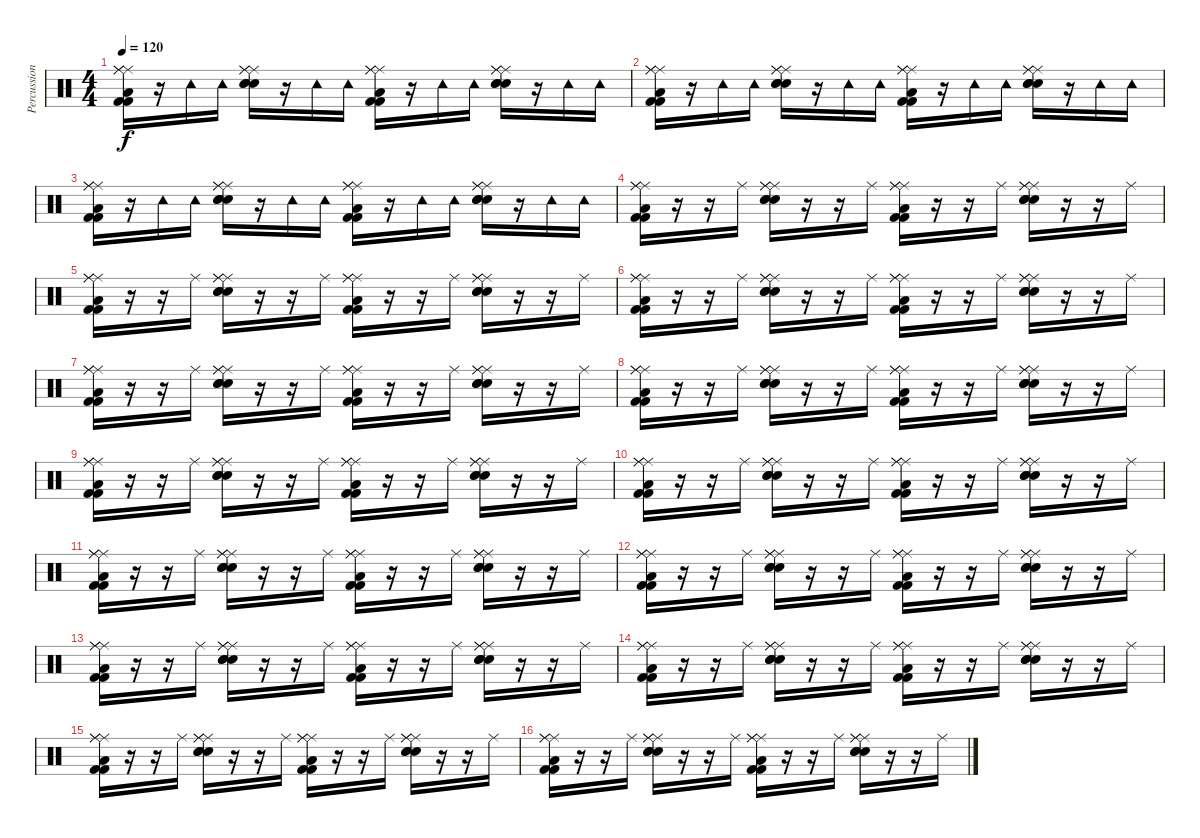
\track ("Percussion" "Percussion") {instrument percussion}
\staff {score}
\articulation defaults
\ts (4 4)
\tempo 120
\clef neutral
\ks c
("Ride (middle)" "Ride (middle)" "Ride (middle)" "Low Floor Tom (hit)" "Kick (hit) 2" "Kick (hit) 2").16{dy f} r.16 "Tambourine (hit)".16 "Tambourine (hit)".16 ("Ride (middle)" "Ride (middle)" "Ride (middle)" "Snare (hit) 2" "Snare (hit) 2" "Snare (hit) 2").16 r.16 "Tambourine (hit)".16 "Tambourine (hit)".16 ("Ride (middle)" "Ride (middle)" "Ride (middle)" "Low Floor Tom (hit)" "Kick (hit) 2" "Kick (hit) 2").16 r.16 "Tambourine (hit)".16 "Tambourine (hit)".16 ("Ride (middle)" "Ride (middle)" "Ride (middle)" "Snare (hit) 2" "Snare (hit) 2" "Snare (hit) 2").16 r.16 "Tambourine (hit)".16 "Tambourine (hit)".16 |
("Ride (middle)" "Ride (middle)" "Ride (middle)" "Low Floor Tom (hit)" "Kick (hit) 2" "Kick (hit) 2").16 r.16 "Tambourine (hit)".16 "Tambourine (hit)".16 ("Ride (middle)" "Ride (middle)" "Ride (middle)" "Snare (hit) 2" "Snare (hit) 2" "Snare (hit) 2").16 r.16 "Tambourine (hit)".16 "Tambourine (hit)".16 ("Ride (middle)" "Ride (middle)" "Ride (middle)" "Low Floor Tom (hit)" "Kick (hit) 2" "Kick (hit) 2").16 r.16 "Tambourine (hit)".16 "Tambourine (hit)".16 ("Ride (middle)" "Ride (middle)" "Ride (middle)" "Snare (hit) 2" "Snare (hit) 2" "Snare (hit) 2").16 r.16 "Tambourine (hit)".16 "Tambourine (hit)".16 |
("Ride (middle)" "Ride (middle)" "Ride (middle)" "Low Floor Tom (hit)" "Kick (hit) 2" "Kick (hit) 2").16 r.16 "Tambourine (hit)".16 "Tambourine (hit)".16 ("Ride (middle)" "Ride (middle)" "Ride (middle)" "Snare (hit) 2" "Snare (hit) 2" "Snare (hit) 2").16 r.16 "Tambourine (hit)".16 "Tambourine (hit)".16 ("Ride (middle)" "Ride (middle)" "Ride (middle)" "Low Floor Tom (hit)" "Kick (hit) 2" "Kick (hit) 2").16 r.16 "Tambourine (hit)".16 "Tambourine (hit)".16 ("Ride (middle)" "Ride (middle)" "Ride (middle)" "Snare (hit) 2" "Snare (hit) 2" "Snare (hit) 2").16 r.16 "Tambourine (hit)".16 "Tambourine (hit)".16 |
("Ride (middle)" "Ride (middle)" "Ride (middle)" "Low Floor Tom (hit)" "Kick (hit) 2" "Kick (hit) 2").16 r.16 r.16 "Ride (middle)".16 ("Ride (middle)" "Ride (middle)" "Ride (middle)" "Snare (hit) 2" "Snare (hit) 2" "Snare (hit) 2").16 r.16 r.16 "Ride (middle)".16 ("Ride (middle)" "Ride (middle)" "Ride (middle)" "Low Floor Tom (hit)" "Kick (hit) 2" "Kick (hit) 2").16 r.16 r.16 "Ride (middle)".16 ("Ride (middle)" "Ride (middle)" "Ride (middle)" "Snare (hit) 2" "Snare (hit) 2" "Snare (hit) 2").16 r.16 r.16 "Ride (middle)".16 |
("Ride (middle)" "Ride (middle)" "Ride (middle)" "Low Floor Tom (hit)" "Kick (hit) 2" "Kick (hit) 2").16 r.16 r.16 "Ride (middle)".16 ("Ride (middle)" "Ride (middle)" "Ride (middle)" "Snare (hit) 2" "Snare (hit) 2" "Snare (hit) 2").16 r.16 r.16 "Ride (middle)".16 ("Ride (middle)" "Ride (middle)" "Ride (middle)" "Low Floor Tom (hit)" "Kick (hit) 2" "Kick (hit) 2").16 r.16 r.16 "Ride (middle)".16 ("Ride (middle)" "Ride (middle)" "Ride (middle)" "Snare (hit) 2" "Snare (hit) 2" "Snare (hit) 2").16 r.16 r.16 "Ride (middle)".16 |
("Ride (middle)" "Ride (middle)" "Ride (middle)" "Low Floor Tom (hit)" "Kick (hit) 2" "Kick (hit) 2").16 r.16 r.16 "Ride (middle)".16 ("Ride (middle)" "Ride (middle)" "Ride (middle)" "Snare (hit) 2" "Snare (hit) 2" "Snare (hit) 2").16 r.16 r.16 "Ride (middle)".16 ("Ride (middle)" "Ride (middle)" "Ride (middle)" "Low Floor Tom (hit)" "Kick (hit) 2" "Kick (hit) 2").16 r.16 r.16 "Ride (middle)".16 ("Ride (middle)" "Ride (middle)" "Ride (middle)" "Snare (hit) 2" "Snare (hit) 2" "Snare (hit) 2").16 r.16 r.16 "Ride (middle)".16 |
("Ride (middle)" "Ride (middle)" "Ride (middle)" "Low Floor Tom (hit)" "Kick (hit) 2" "Kick (hit) 2").16 r.16 r.16 "Ride (middle)".16 ("Ride (middle)" "Ride (middle)" "Ride (middle)" "Snare (hit) 2" "Snare (hit) 2" "Snare (hit) 2").16 r.16 r.16 "Ride (middle)".16 ("Ride (middle)" "Ride (middle)" "Ride (middle)" "Low Floor Tom (hit)" "Kick (hit) 2" "Kick (hit) 2").16 r.16 r.16 "Ride (middle)".16 ("Ride (middle)" "Ride (middle)" "Ride (middle)" "Snare (hit) 2" "Snare (hit) 2" "Snare (hit) 2").16 r.16 r.16 "Ride (middle)".16 |
("Ride (middle)" "Ride (middle)" "Ride (middle)" "Low Floor Tom (hit)" "Kick (hit) 2" "Kick (hit) 2").16 r.16 r.16 "Ride (middle)".16 ("Ride (middle)" "Ride (middle)" "Ride (middle)" "Snare (hit) 2" "Snare (hit) 2" "Snare (hit) 2").16 r.16 r.16 "Ride (middle)".16 ("Ride (middle)" "Ride (middle)" "Ride (middle)" "Low Floor Tom (hit)" "Kick (hit) 2" "Kick (hit) 2").16 r.16 r.16 "Ride (middle)".16 ("Ride (middle)" "Ride (middle)" "Ride (middle)" "Snare (hit) 2" "Snare (hit) 2" "Snare (hit) 2").16 r.16 r.16 "Ride (middle)".16 |
("Ride (middle)" "Ride (middle)" "Ride (middle)" "Low Floor Tom (hit)" "Kick (hit) 2" "Kick (hit) 2").16 r.16 r.16 "Ride (middle)".16 ("Ride (middle)" "Ride (middle)" "Ride (middle)" "Snare (hit) 2" "Snare (hit) 2" "Snare (hit) 2").16 r.16 r.16 "Ride (middle)".16 ("Ride (middle)" "Ride (middle)" "Ride (middle)" "Low Floor Tom (hit)" "Kick (hit) 2" "Kick (hit) 2").16 r.16 r.16 "Ride (middle)".16 ("Ride (middle)" "Ride (middle)" "Ride (middle)" "Snare (hit) 2" "Snare (hit) 2" "Snare (hit) 2").16 r.16 r.16 "Ride (middle)".16 |
("Ride (middle)" "Ride (middle)" "Ride (middle)" "Low Floor Tom (hit)" "Kick (hit) 2" "Kick (hit) 2").16 r.16 r.16 "Ride (middle)".16 ("Ride (middle)" "Ride (middle)" "Ride (middle)" "Snare (hit) 2" "Snare (hit) 2" "Snare (hit) 2").16 r.16 r.16 "Ride (middle)".16 ("Ride (middle)" "Ride (middle)" "Ride (middle)" "Low Floor Tom (hit)" "Kick (hit) 2" "Kick (hit) 2").16 r.16 r.16 "Ride (middle)".16 ("Ride (middle)" "Ride (middle)" "Ride (middle)" "Snare (hit) 2" "Snare (hit) 2" "Snare (hit) 2").16 r.16 r.16 "Ride (middle)".16 |
("Ride (middle)" "Ride (middle)" "Ride (middle)" "Low Floor Tom (hit)" "Kick (hit) 2" "Kick (hit) 2").16 r.16 r.16 "Ride (middle)".16 ("Ride (middle)" "Ride (middle)" "Ride (middle)" "Snare (hit) 2" "Snare (hit) 2" "Snare (hit) 2").16 r.16 r.16 "Ride (middle)".16 ("Ride (middle)" "Ride (middle)" "Ride (middle)" "Low Floor Tom (hit)" "Kick (hit) 2" "Kick (hit) 2").16 r.16 r.16 "Ride (middle)".16 ("Ride (middle)" "Ride (middle)" "Ride (middle)" "Snare (hit) 2" "Snare (hit) 2" "Snare (hit) 2").16 r.16 r.16 "Ride (middle)".16 |
("Ride (middle)" "Ride (middle)" "Ride (middle)" "Low Floor Tom (hit)" "Kick (hit) 2" "Kick (hit) 2").16 r.16 r.16 "Ride (middle)".16 ("Ride (middle)" "Ride (middle)" "Ride (middle)" "Snare (hit) 2" "Snare (hit) 2" "Snare (hit) 2").16 r.16 r.16 "Ride (middle)".16 ("Ride (middle)" "Ride (middle)" "Ride (middle)" "Low Floor Tom (hit)" "Kick (hit) 2" "Kick (hit) 2").16 r.16 r.16 "Ride (middle)".16 ("Ride (middle)" "Ride (middle)" "Ride (middle)" "Snare (hit) 2" "Snare (hit) 2" "Snare (hit) 2").16 r.16 r.16 "Ride (middle)".16 |
("Ride (middle)" "Ride (middle)" "Ride (middle)" "Low Floor Tom (hit)" "Kick (hit) 2" "Kick (hit) 2").16 r.16 r.16 "Ride (middle)".16 ("Ride (middle)" "Ride (middle)" "Ride (middle)" "Snare (hit) 2" "Snare (hit) 2" "Snare (hit) 2").16 r.16 r.16 "Ride (middle)".16 ("Ride (middle)" "Ride (middle)" "Ride (middle)" "Low Floor Tom (hit)" "Kick (hit) 2" "Kick (hit) 2").16 r.16 r.16 "Ride (middle)".16 ("Ride (middle)" "Ride (middle)" "Ride (middle)" "Snare (hit) 2" "Snare (hit) 2" "Snare (hit) 2").16 r.16 r.16 "Ride (middle)".16 |
("Ride (middle)" "Ride (middle)" "Ride (middle)" "Low Floor Tom (hit)" "Kick (hit) 2" "Kick (hit) 2").16 r.16 r.16 "Ride (middle)".16 ("Ride (middle)" "Ride (middle)" "Ride (middle)" "Snare (hit) 2" "Snare (hit) 2" "Snare (hit) 2").16 r.16 r.16 "Ride (middle)".16 ("Ride (middle)" "Ride (middle)" "Ride (middle)" "Low Floor Tom (hit)" "Kick (hit) 2" "Kick (hit) 2").16 r.16 r.16 "Ride (middle)".16 ("Ride (middle)" "Ride (middle)" "Ride (middle)" "Snare (hit) 2" "Snare (hit) 2" "Snare (hit) 2").16 r.16 r.16 "Ride (middle)".16 |
("Ride (middle)" "Ride (middle)" "Ride (middle)" "Low Floor Tom (hit)" "Kick (hit) 2" "Kick (hit) 2").16 r.16 r.16 "Ride (middle)".16 ("Ride (middle)" "Ride (middle)" "Ride (middle)" "Snare (hit) 2" "Snare (hit) 2" "Snare (hit) 2").16 r.16 r.16 "Ride (middle)".16 ("Ride (middle)" "Ride (middle)" "Ride (middle)" "Low Floor Tom (hit)" "Kick (hit) 2" "Kick (hit) 2").16 r.16 r.16 "Ride (middle)".16 ("Ride (middle)" "Ride (middle)" "Ride (middle)" "Snare (hit) 2" "Snare (hit) 2" "Snare (hit) 2").16 r.16 r.16 "Ride (middle)".16 |
("Ride (middle)" "Ride (middle)" "Ride (middle)" "Low Floor Tom (hit)" "Kick (hit) 2" "Kick (hit) 2").16 r.16 r.16 "Ride (middle)".16 ("Ride (middle)" "Ride (middle)" "Ride (middle)" "Snare (hit) 2" "Snare (hit) 2" "Snare (hit) 2").16 r.16 r.16 "Ride (middle)".16 ("Ride (middle)" "Ride (middle)" "Ride (middle)" "Low Floor Tom (hit)" "Kick (hit) 2" "Kick (hit) 2").16 r.16 r.16 "Ride (middle)".16 ("Ride (middle)" "Ride (middle)" "Ride (middle)" "Snare (hit) 2" "Snare (hit) 2" "Snare (hit) 2").16 r.16 r.16 "Ride (middle)".16
